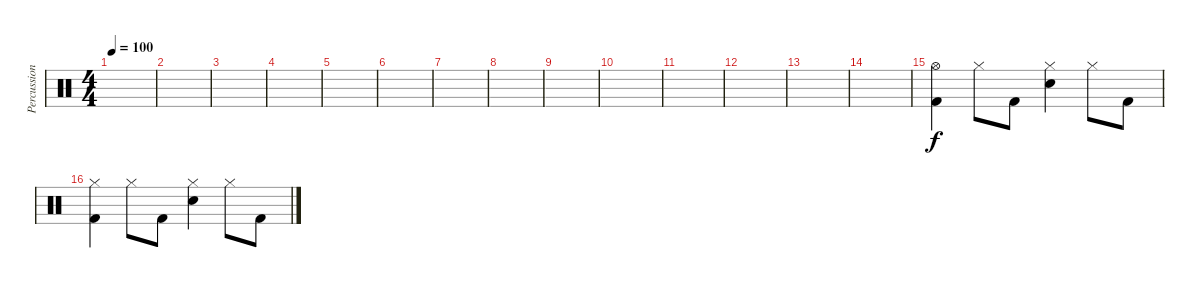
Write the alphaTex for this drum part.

\track ("Percussion" "Percussion") {instrument percussion}
\staff {score}
\articulation defaults
\ts (4 4)
\tempo 100
\clef neutral
\ks c
|
|
|
|
|
|
|
|
|
|
|
|
|
|
("Hi-Hat (open)" "Kick (hit) 2").4 "Hi-Hat (closed)".8 "Kick (hit) 2".8 ("Hi-Hat (closed)" "Snare (hit) 2").4 "Hi-Hat (closed)".8 "Kick (hit) 2".8 |
("Hi-Hat (closed)" "Kick (hit) 2").4 "Hi-Hat (closed)".8 "Kick (hit) 2".8 ("Hi-Hat (closed)" "Snare (hit) 2").4 "Hi-Hat (closed)".8 "Kick (hit) 2".8
